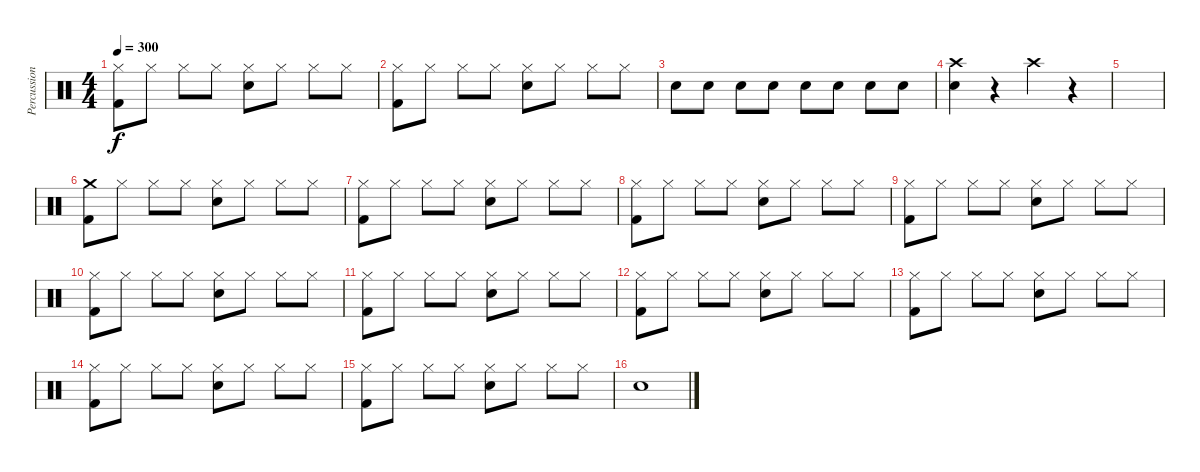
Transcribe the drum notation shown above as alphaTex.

\track ("Percussion" "Percussion") {instrument percussion}
\staff {score}
\articulation defaults
\ts (4 4)
\tempo 300
\clef neutral
\ks c
("Kick (hit) 2" "Hi-Hat (closed)").8{dy f} "Hi-Hat (closed)".8 "Hi-Hat (closed)".8 "Hi-Hat (closed)".8 ("Snare (hit) 2" "Hi-Hat (closed)").8 "Hi-Hat (closed)".8 "Hi-Hat (closed)".8 "Hi-Hat (closed)".8 |
("Kick (hit) 2" "Hi-Hat (closed)").8 "Hi-Hat (closed)".8 "Hi-Hat (closed)".8 "Hi-Hat (closed)".8 ("Snare (hit) 2" "Hi-Hat (closed)").8 "Hi-Hat (closed)".8 "Hi-Hat (closed)".8 "Hi-Hat (closed)".8 |
"Snare (hit) 2".8 "Snare (hit) 2".8 "Snare (hit) 2".8 "Snare (hit) 2".8 "Snare (hit) 2".8 "Snare (hit) 2".8 "Snare (hit) 2".8 "Snare (hit) 2".8 |
("Snare (hit) 2" "Crash high (hit)").4 r.4 "Crash high (hit)".4 r.4 |
|
("Crash medium (hit)" "Kick (hit) 2").8 "Hi-Hat (closed)".8 "Hi-Hat (closed)".8 "Hi-Hat (closed)".8 ("Snare (hit) 2" "Hi-Hat (closed)").8 "Hi-Hat (closed)".8 "Hi-Hat (closed)".8 "Hi-Hat (closed)".8 |
("Kick (hit) 2" "Hi-Hat (closed)").8 "Hi-Hat (closed)".8 "Hi-Hat (closed)".8 "Hi-Hat (closed)".8 ("Snare (hit) 2" "Hi-Hat (closed)").8 "Hi-Hat (closed)".8 "Hi-Hat (closed)".8 "Hi-Hat (closed)".8 |
("Kick (hit) 2" "Hi-Hat (closed)").8 "Hi-Hat (closed)".8 "Hi-Hat (closed)".8 "Hi-Hat (closed)".8 ("Snare (hit) 2" "Hi-Hat (closed)").8 "Hi-Hat (closed)".8 "Hi-Hat (closed)".8 "Hi-Hat (closed)".8 |
("Kick (hit) 2" "Hi-Hat (closed)").8 "Hi-Hat (closed)".8 "Hi-Hat (closed)".8 "Hi-Hat (closed)".8 ("Snare (hit) 2" "Hi-Hat (closed)").8 "Hi-Hat (closed)".8 "Hi-Hat (closed)".8 "Hi-Hat (closed)".8 |
("Kick (hit) 2" "Hi-Hat (closed)").8 "Hi-Hat (closed)".8 "Hi-Hat (closed)".8 "Hi-Hat (closed)".8 ("Snare (hit) 2" "Hi-Hat (closed)").8 "Hi-Hat (closed)".8 "Hi-Hat (closed)".8 "Hi-Hat (closed)".8 |
("Kick (hit) 2" "Hi-Hat (closed)").8 "Hi-Hat (closed)".8 "Hi-Hat (closed)".8 "Hi-Hat (closed)".8 ("Snare (hit) 2" "Hi-Hat (closed)").8 "Hi-Hat (closed)".8 "Hi-Hat (closed)".8 "Hi-Hat (closed)".8 |
("Kick (hit) 2" "Hi-Hat (closed)").8 "Hi-Hat (closed)".8 "Hi-Hat (closed)".8 "Hi-Hat (closed)".8 ("Snare (hit) 2" "Hi-Hat (closed)").8 "Hi-Hat (closed)".8 "Hi-Hat (closed)".8 "Hi-Hat (closed)".8 |
("Kick (hit) 2" "Hi-Hat (closed)").8 "Hi-Hat (closed)".8 "Hi-Hat (closed)".8 "Hi-Hat (closed)".8 ("Snare (hit) 2" "Hi-Hat (closed)").8 "Hi-Hat (closed)".8 "Hi-Hat (closed)".8 "Hi-Hat (closed)".8 |
("Kick (hit) 2" "Hi-Hat (closed)").8 "Hi-Hat (closed)".8 "Hi-Hat (closed)".8 "Hi-Hat (closed)".8 ("Snare (hit) 2" "Hi-Hat (closed)").8 "Hi-Hat (closed)".8 "Hi-Hat (closed)".8 "Hi-Hat (closed)".8 |
("Kick (hit) 2" "Hi-Hat (closed)").8 "Hi-Hat (closed)".8 "Hi-Hat (closed)".8 "Hi-Hat (closed)".8 ("Snare (hit) 2" "Hi-Hat (closed)").8 "Hi-Hat (closed)".8 "Hi-Hat (closed)".8 "Hi-Hat (closed)".8 |
"Snare (hit) 2".1
